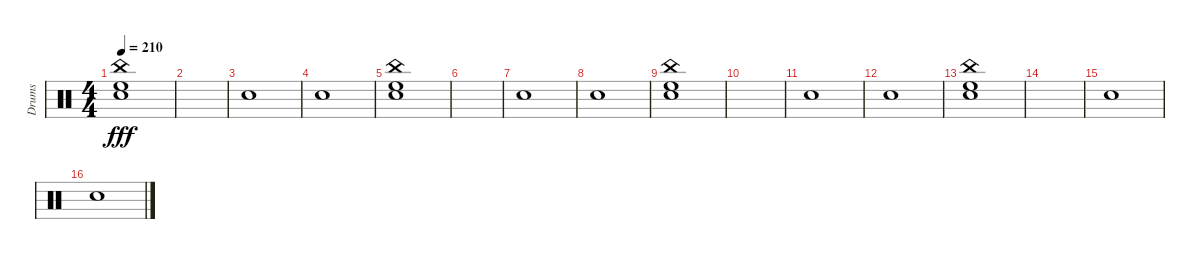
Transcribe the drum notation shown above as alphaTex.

\track ("Drums" "Drums") {instrument percussion}
\staff {score}
\articulation defaults
\ts (4 4)
\tempo 210
\clef neutral
\ks c
("Electric Snare (hit)" "High Floor Tom (hit)" "China (hit)").1{dy fff} |
|
"Electric Snare (hit)".1 |
"Electric Snare (hit)".1 |
("Electric Snare (hit)" "High Floor Tom (hit)" "China (hit)").1 |
|
"Electric Snare (hit)".1 |
"Electric Snare (hit)".1 |
("Electric Snare (hit)" "High Floor Tom (hit)" "China (hit)").1 |
|
"Electric Snare (hit)".1 |
"Electric Snare (hit)".1 |
("Electric Snare (hit)" "High Floor Tom (hit)" "China (hit)").1 |
|
"Electric Snare (hit)".1 |
"Electric Snare (hit)".1
